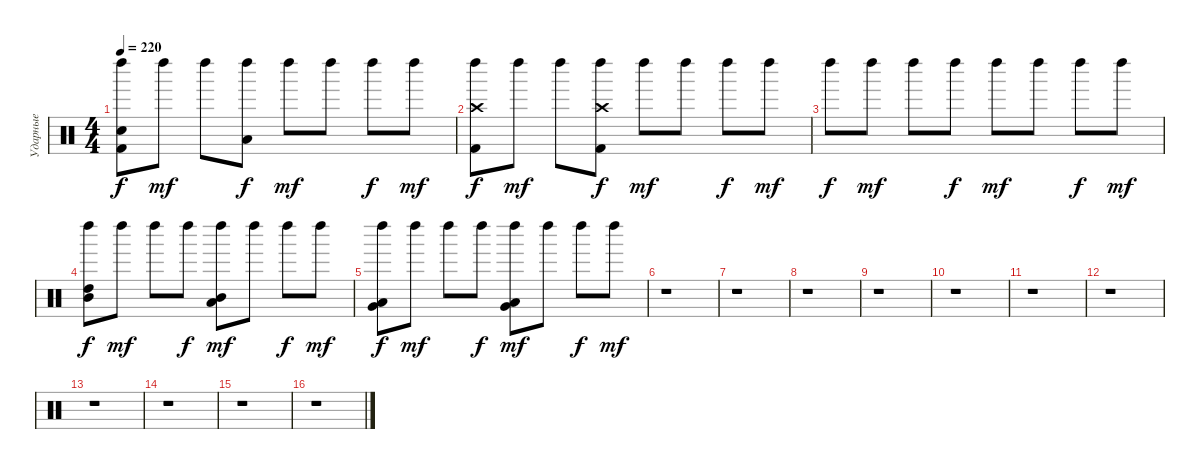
\track ("Ударные" "Ударные") {instrument percussion}
\staff {score}
\articulation defaults
\ts (4 4)
\tempo 220
\clef neutral
\ks c
("Kick (hit) 2" "Electric Snare (hit)" "Left Maraca (hit)").8{dy f} "Left Maraca (hit)".8{dy mf} "Left Maraca (hit)".8 ("Low Tom (hit)" "Left Maraca (hit)").8{dy f} "Left Maraca (hit)".8{dy mf} "Left Maraca (hit)".8 "Left Maraca (hit)".8{dy f} "Left Maraca (hit)".8{dy mf} |
("Kick (hit) 2" "Left Maraca (hit)" "Crash high (hit)").8{dy f} "Left Maraca (hit)".8{dy mf} "Left Maraca (hit)".8 ("Crash high (hit)" "Left Maraca (hit)" "Kick (hit) 2").8{dy f} "Left Maraca (hit)".8{dy mf} "Left Maraca (hit)".8 "Left Maraca (hit)".8{dy f} "Left Maraca (hit)".8{dy mf} |
"Left Maraca (hit)".8{dy f} "Left Maraca (hit)".8{dy mf} "Left Maraca (hit)".8 "Left Maraca (hit)".8{dy f} "Left Maraca (hit)".8{dy mf} "Left Maraca (hit)".8 "Left Maraca (hit)".8{dy f} "Left Maraca (hit)".8{dy mf} |
("Mid Tom (hit)" "Left Maraca (hit)" "High Tom (hit)").8{dy f} "Left Maraca (hit)".8{dy mf} "Left Maraca (hit)".8 "Left Maraca (hit)".8{dy f} ("Low Tom (hit)" "Left Maraca (hit)" "Mid Tom (hit)").8{dy mf} "Left Maraca (hit)".8 "Left Maraca (hit)".8{dy f} "Left Maraca (hit)".8{dy mf} |
("Very Low Tom (hit)" "Left Maraca (hit)" "Low Tom (hit)").8{dy f} "Left Maraca (hit)".8{dy mf} "Left Maraca (hit)".8 "Left Maraca (hit)".8{dy f} ("Low Floor Tom (hit)" "Left Maraca (hit)" "Very Low Tom (hit)").8{dy mf} "Left Maraca (hit)".8 "Left Maraca (hit)".8{dy f} "Left Maraca (hit)".8{dy mf} |
r.1 |
r.1 |
r.1 |
r.1 |
r.1 |
r.1 |
r.1 |
r.1 |
r.1 |
r.1 |
r.1
